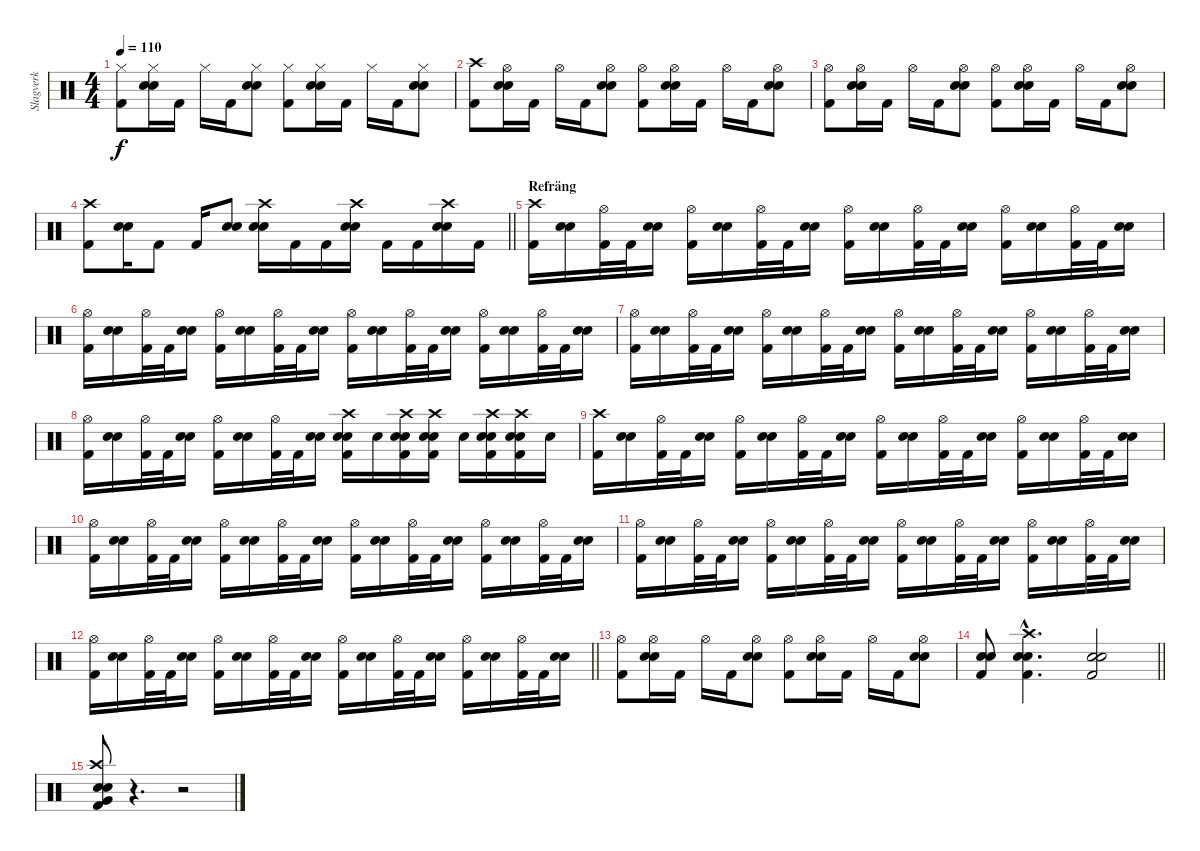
\track ("Slagverk" "Slagverk") {instrument percussion}
\staff {score}
\articulation defaults
\ts (4 4)
\tempo 110
\clef neutral
\ks c
("Hi-Hat (closed)" "Kick (hit) 2").8{dy f} ("Hi-Hat (closed)" "Electric Snare (hit)" "Electric Snare (hit)").16 "Kick (hit) 2".16 "Hi-Hat (closed)".16 "Kick (hit) 2".16 ("Hi-Hat (closed)" "Electric Snare (hit)" "Electric Snare (hit)").8 ("Hi-Hat (closed)" "Kick (hit) 2").8 ("Hi-Hat (closed)" "Electric Snare (hit)" "Electric Snare (hit)").16 "Kick (hit) 2".16 "Hi-Hat (closed)".16 "Kick (hit) 2".16 ("Hi-Hat (closed)" "Electric Snare (hit)" "Electric Snare (hit)").8 |
("Crash high (hit)" "Kick (hit) 2").8 ("Hi-Hat (open)" "Electric Snare (hit)" "Electric Snare (hit)").16 "Kick (hit) 2".16 "Hi-Hat (open)".16 "Kick (hit) 2".16 ("Hi-Hat (open)" "Electric Snare (hit)" "Electric Snare (hit)").8 ("Hi-Hat (open)" "Kick (hit) 2").8 ("Hi-Hat (open)" "Electric Snare (hit)" "Electric Snare (hit)").16 "Kick (hit) 2".16 "Hi-Hat (open)".16 "Kick (hit) 2".16 ("Hi-Hat (open)" "Electric Snare (hit)" "Electric Snare (hit)").8 |
("Hi-Hat (open)" "Kick (hit) 2").8 ("Hi-Hat (open)" "Electric Snare (hit)" "Electric Snare (hit)").16 "Kick (hit) 2".16 "Hi-Hat (open)".16 "Kick (hit) 2".16 ("Hi-Hat (open)" "Electric Snare (hit)" "Electric Snare (hit)").8 ("Hi-Hat (open)" "Kick (hit) 2").8 ("Hi-Hat (open)" "Electric Snare (hit)" "Electric Snare (hit)").16 "Kick (hit) 2".16 "Hi-Hat (open)".16 "Kick (hit) 2".16 ("Hi-Hat (open)" "Electric Snare (hit)" "Electric Snare (hit)").8 |
\barLineRight lightlight
("Crash high (hit)" "Kick (hit) 2").8 ("Electric Snare (hit)" "Electric Snare (hit)").16 "Kick (hit) 2".8 "Kick (hit) 2".16 ("Electric Snare (hit)" "Electric Snare (hit)").8 ("Crash high (hit)" "Electric Snare (hit)" "Electric Snare (hit)").16 "Kick (hit) 2".16 "Kick (hit) 2".16 ("Crash high (hit)" "Electric Snare (hit)" "Electric Snare (hit)").16 "Kick (hit) 2".16 "Kick (hit) 2".16 ("Crash high (hit)" "Electric Snare (hit)" "Electric Snare (hit)").16 "Kick (hit) 2".16 |
\section ("" "Refräng")
("Crash high (hit)" "Kick (hit) 2").16 ("Electric Snare (hit)" "Electric Snare (hit)").16 ("Hi-Hat (open)" "Kick (hit) 2").32 "Kick (hit) 2".32 ("Electric Snare (hit)" "Electric Snare (hit)").16 ("Hi-Hat (open)" "Kick (hit) 2").16 ("Electric Snare (hit)" "Electric Snare (hit)").16 ("Hi-Hat (open)" "Kick (hit) 2").32 "Kick (hit) 2".32 ("Electric Snare (hit)" "Electric Snare (hit)").16 ("Hi-Hat (open)" "Kick (hit) 2").16 ("Electric Snare (hit)" "Electric Snare (hit)").16 ("Hi-Hat (open)" "Kick (hit) 2").32 "Kick (hit) 2".32 ("Electric Snare (hit)" "Electric Snare (hit)").16 ("Hi-Hat (open)" "Kick (hit) 2").16 ("Electric Snare (hit)" "Electric Snare (hit)").16 ("Hi-Hat (open)" "Kick (hit) 2").32 "Kick (hit) 2".32 ("Electric Snare (hit)" "Electric Snare (hit)").16 |
("Hi-Hat (open)" "Kick (hit) 2").16 ("Electric Snare (hit)" "Electric Snare (hit)").16 ("Hi-Hat (open)" "Kick (hit) 2").32 "Kick (hit) 2".32 ("Electric Snare (hit)" "Electric Snare (hit)").16 ("Hi-Hat (open)" "Kick (hit) 2").16 ("Electric Snare (hit)" "Electric Snare (hit)").16 ("Hi-Hat (open)" "Kick (hit) 2").32 "Kick (hit) 2".32 ("Electric Snare (hit)" "Electric Snare (hit)").16 ("Hi-Hat (open)" "Kick (hit) 2").16 ("Electric Snare (hit)" "Electric Snare (hit)").16 ("Hi-Hat (open)" "Kick (hit) 2").32 "Kick (hit) 2".32 ("Electric Snare (hit)" "Electric Snare (hit)").16 ("Hi-Hat (open)" "Kick (hit) 2").16 ("Electric Snare (hit)" "Electric Snare (hit)").16 ("Hi-Hat (open)" "Kick (hit) 2").32 "Kick (hit) 2".32 ("Electric Snare (hit)" "Electric Snare (hit)").16 |
("Hi-Hat (open)" "Kick (hit) 2").16 ("Electric Snare (hit)" "Electric Snare (hit)").16 ("Hi-Hat (open)" "Kick (hit) 2").32 "Kick (hit) 2".32 ("Electric Snare (hit)" "Electric Snare (hit)").16 ("Hi-Hat (open)" "Kick (hit) 2").16 ("Electric Snare (hit)" "Electric Snare (hit)").16 ("Hi-Hat (open)" "Kick (hit) 2").32 "Kick (hit) 2".32 ("Electric Snare (hit)" "Electric Snare (hit)").16 ("Hi-Hat (open)" "Kick (hit) 2").16 ("Electric Snare (hit)" "Electric Snare (hit)").16 ("Hi-Hat (open)" "Kick (hit) 2").32 "Kick (hit) 2".32 ("Electric Snare (hit)" "Electric Snare (hit)").16 ("Hi-Hat (open)" "Kick (hit) 2").16 ("Electric Snare (hit)" "Electric Snare (hit)").16 ("Hi-Hat (open)" "Kick (hit) 2").32 "Kick (hit) 2".32 ("Electric Snare (hit)" "Electric Snare (hit)").16 |
("Hi-Hat (open)" "Kick (hit) 2").16 ("Electric Snare (hit)" "Electric Snare (hit)").16 ("Hi-Hat (open)" "Kick (hit) 2").32 "Kick (hit) 2".32 ("Electric Snare (hit)" "Electric Snare (hit)").16 ("Hi-Hat (open)" "Kick (hit) 2").16 ("Electric Snare (hit)" "Electric Snare (hit)").16 ("Hi-Hat (open)" "Kick (hit) 2").32 "Kick (hit) 2".32 ("Electric Snare (hit)" "Electric Snare (hit)").16 ("Crash high (hit)" "Electric Snare (hit)" "Electric Snare (hit)" "Kick (hit) 2").16 "Electric Snare (hit)".16 ("Crash high (hit)" "Electric Snare (hit)" "Electric Snare (hit)" "Kick (hit) 2").16 ("Crash high (hit)" "Electric Snare (hit)" "Electric Snare (hit)" "Kick (hit) 2").16 "Electric Snare (hit)".16 ("Crash high (hit)" "Electric Snare (hit)" "Electric Snare (hit)" "Kick (hit) 2").16 ("Crash high (hit)" "Electric Snare (hit)" "Electric Snare (hit)" "Kick (hit) 2").16 "Electric Snare (hit)".16 |
("Crash high (hit)" "Kick (hit) 2").16 ("Electric Snare (hit)" "Electric Snare (hit)").16 ("Hi-Hat (open)" "Kick (hit) 2").32 "Kick (hit) 2".32 ("Electric Snare (hit)" "Electric Snare (hit)").16 ("Hi-Hat (open)" "Kick (hit) 2").16 ("Electric Snare (hit)" "Electric Snare (hit)").16 ("Hi-Hat (open)" "Kick (hit) 2").32 "Kick (hit) 2".32 ("Electric Snare (hit)" "Electric Snare (hit)").16 ("Hi-Hat (open)" "Kick (hit) 2").16 ("Electric Snare (hit)" "Electric Snare (hit)").16 ("Hi-Hat (open)" "Kick (hit) 2").32 "Kick (hit) 2".32 ("Electric Snare (hit)" "Electric Snare (hit)").16 ("Hi-Hat (open)" "Kick (hit) 2").16 ("Electric Snare (hit)" "Electric Snare (hit)").16 ("Hi-Hat (open)" "Kick (hit) 2").32 "Kick (hit) 2".32 ("Electric Snare (hit)" "Electric Snare (hit)").16 |
("Hi-Hat (open)" "Kick (hit) 2").16 ("Electric Snare (hit)" "Electric Snare (hit)").16 ("Hi-Hat (open)" "Kick (hit) 2").32 "Kick (hit) 2".32 ("Electric Snare (hit)" "Electric Snare (hit)").16 ("Hi-Hat (open)" "Kick (hit) 2").16 ("Electric Snare (hit)" "Electric Snare (hit)").16 ("Hi-Hat (open)" "Kick (hit) 2").32 "Kick (hit) 2".32 ("Electric Snare (hit)" "Electric Snare (hit)").16 ("Hi-Hat (open)" "Kick (hit) 2").16 ("Electric Snare (hit)" "Electric Snare (hit)").16 ("Hi-Hat (open)" "Kick (hit) 2").32 "Kick (hit) 2".32 ("Electric Snare (hit)" "Electric Snare (hit)").16 ("Hi-Hat (open)" "Kick (hit) 2").16 ("Electric Snare (hit)" "Electric Snare (hit)").16 ("Hi-Hat (open)" "Kick (hit) 2").32 "Kick (hit) 2".32 ("Electric Snare (hit)" "Electric Snare (hit)").16 |
("Hi-Hat (open)" "Kick (hit) 2").16 ("Electric Snare (hit)" "Electric Snare (hit)").16 ("Hi-Hat (open)" "Kick (hit) 2").32 "Kick (hit) 2".32 ("Electric Snare (hit)" "Electric Snare (hit)").16 ("Hi-Hat (open)" "Kick (hit) 2").16 ("Electric Snare (hit)" "Electric Snare (hit)").16 ("Hi-Hat (open)" "Kick (hit) 2").32 "Kick (hit) 2".32 ("Electric Snare (hit)" "Electric Snare (hit)").16 ("Hi-Hat (open)" "Kick (hit) 2").16 ("Electric Snare (hit)" "Electric Snare (hit)").16 ("Hi-Hat (open)" "Kick (hit) 2").32 "Kick (hit) 2".32 ("Electric Snare (hit)" "Electric Snare (hit)").16 ("Hi-Hat (open)" "Kick (hit) 2").16 ("Electric Snare (hit)" "Electric Snare (hit)").16 ("Hi-Hat (open)" "Kick (hit) 2").32 "Kick (hit) 2".32 ("Electric Snare (hit)" "Electric Snare (hit)").16 |
\barLineRight lightlight
("Hi-Hat (open)" "Kick (hit) 2").16 ("Electric Snare (hit)" "Electric Snare (hit)").16 ("Hi-Hat (open)" "Kick (hit) 2").32 "Kick (hit) 2".32 ("Electric Snare (hit)" "Electric Snare (hit)").16 ("Hi-Hat (open)" "Kick (hit) 2").16 ("Electric Snare (hit)" "Electric Snare (hit)").16 ("Hi-Hat (open)" "Kick (hit) 2").32 "Kick (hit) 2".32 ("Electric Snare (hit)" "Electric Snare (hit)").16 ("Hi-Hat (open)" "Kick (hit) 2").16 ("Electric Snare (hit)" "Electric Snare (hit)").16 ("Hi-Hat (open)" "Kick (hit) 2").32 "Kick (hit) 2".32 ("Electric Snare (hit)" "Electric Snare (hit)").16 ("Hi-Hat (open)" "Kick (hit) 2").16 ("Electric Snare (hit)" "Electric Snare (hit)").16 ("Hi-Hat (open)" "Kick (hit) 2").32 "Kick (hit) 2".32 ("Electric Snare (hit)" "Electric Snare (hit)").16 |
("Hi-Hat (open)" "Kick (hit) 2").8 ("Hi-Hat (open)" "Electric Snare (hit)" "Electric Snare (hit)").16 "Kick (hit) 2".16 "Hi-Hat (open)".16 "Kick (hit) 2".16 ("Hi-Hat (open)" "Electric Snare (hit)" "Electric Snare (hit)").8 ("Hi-Hat (open)" "Kick (hit) 2").8 ("Hi-Hat (open)" "Electric Snare (hit)" "Electric Snare (hit)").16 "Kick (hit) 2".16 "Hi-Hat (open)".16 "Kick (hit) 2".16 ("Hi-Hat (open)" "Electric Snare (hit)" "Electric Snare (hit)").8 |
\barLineRight lightlight
("Electric Snare (hit)" "Electric Snare (hit)" "Kick (hit) 2").8 ("Crash high (hit)"{hac} "Electric Snare (hit)"{hac} "Electric Snare (hit)"{hac} "Kick (hit) 2"{hac}).4{d} ("Electric Snare (hit)" "Electric Snare (hit)" "Kick (hit) 2").2 |
("Crash high (hit)" "Very Low Tom (hit)" "Electric Snare (hit)" "Electric Snare (hit)" "Kick (hit) 2").8 r.4{d} r.2
